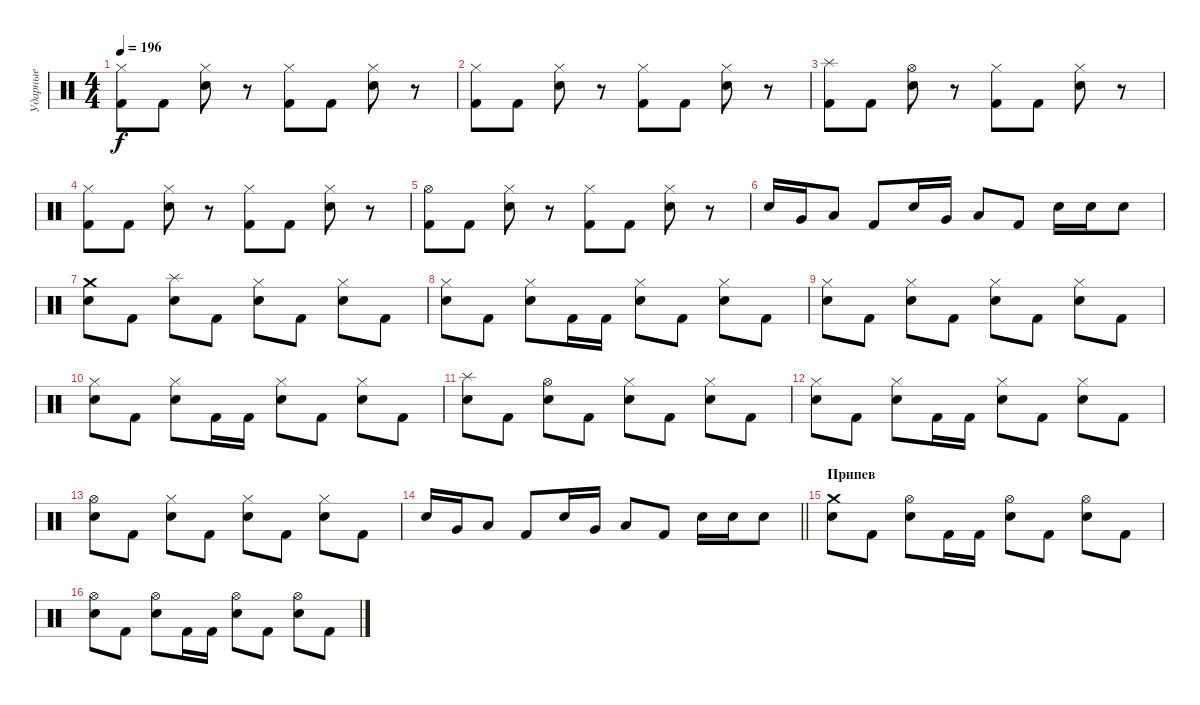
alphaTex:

\track ("Ударные" "Ударные") {instrument percussion}
\staff {score}
\articulation defaults
\ts (4 4)
\tempo 196
\clef neutral
\ks c
("Hi-Hat (closed)" "Kick (hit) 2").8{dy f} "Kick (hit) 2".8 ("Hi-Hat (closed)" "Snare (hit) 2").8 r.8 ("Hi-Hat (closed)" "Kick (hit) 2").8 "Kick (hit) 2".8 ("Hi-Hat (closed)" "Snare (hit) 2").8 r.8 |
("Hi-Hat (closed)" "Kick (hit) 2").8 "Kick (hit) 2".8 ("Hi-Hat (closed)" "Snare (hit) 2").8 r.8 ("Hi-Hat (closed)" "Kick (hit) 2").8 "Kick (hit) 2".8 ("Hi-Hat (closed)" "Snare (hit) 2").8 r.8 |
("Splash (hit)" "Kick (hit) 2").8 "Kick (hit) 2".8 ("Hi-Hat (open)" "Snare (hit) 2").8 r.8 ("Hi-Hat (closed)" "Kick (hit) 2").8 "Kick (hit) 2".8 ("Hi-Hat (closed)" "Snare (hit) 2").8 r.8 |
("Hi-Hat (closed)" "Kick (hit) 2").8 "Kick (hit) 2".8 ("Hi-Hat (closed)" "Snare (hit) 2").8 r.8 ("Hi-Hat (closed)" "Kick (hit) 2").8 "Kick (hit) 2".8 ("Hi-Hat (closed)" "Snare (hit) 2").8 r.8 |
("Hi-Hat (open)" "Kick (hit) 2").8 "Kick (hit) 2".8 ("Hi-Hat (closed)" "Snare (hit) 2").8 r.8 ("Hi-Hat (closed)" "Kick (hit) 2").8 "Kick (hit) 2".8 ("Hi-Hat (closed)" "Snare (hit) 2").8 r.8 |
"Snare (hit) 2".16 "Very Low Tom (hit)".16 "Low Tom (hit)".8 "Kick (hit) 2".8 "Snare (hit) 2".16 "Very Low Tom (hit)".16 "Low Tom (hit)".8 "Kick (hit) 2".8 "Snare (hit) 2".16 "Snare (hit) 2".16 "Snare (hit) 2".8 |
("Crash medium (hit)" "Snare (hit) 2").8 "Kick (hit) 2".8 ("Splash (hit)" "Snare (hit) 2").8 "Kick (hit) 2".8 ("Hi-Hat (closed)" "Snare (hit) 2").8 "Kick (hit) 2".8 ("Hi-Hat (closed)" "Snare (hit) 2").8 "Kick (hit) 2".8 |
("Hi-Hat (closed)" "Snare (hit) 2").8 "Kick (hit) 2".8 ("Hi-Hat (closed)" "Snare (hit) 2").8 "Kick (hit) 2".16 "Kick (hit) 2".16 ("Hi-Hat (closed)" "Snare (hit) 2").8 "Kick (hit) 2".8 ("Hi-Hat (closed)" "Snare (hit) 2").8 "Kick (hit) 2".8 |
("Hi-Hat (closed)" "Snare (hit) 2").8 "Kick (hit) 2".8 ("Hi-Hat (closed)" "Snare (hit) 2").8 "Kick (hit) 2".8 ("Hi-Hat (closed)" "Snare (hit) 2").8 "Kick (hit) 2".8 ("Hi-Hat (closed)" "Snare (hit) 2").8 "Kick (hit) 2".8 |
("Hi-Hat (closed)" "Snare (hit) 2").8 "Kick (hit) 2".8 ("Hi-Hat (closed)" "Snare (hit) 2").8 "Kick (hit) 2".16 "Kick (hit) 2".16 ("Hi-Hat (closed)" "Snare (hit) 2").8 "Kick (hit) 2".8 ("Hi-Hat (closed)" "Snare (hit) 2").8 "Kick (hit) 2".8 |
("Splash (hit)" "Snare (hit) 2").8 "Kick (hit) 2".8 ("Hi-Hat (open)" "Snare (hit) 2").8 "Kick (hit) 2".8 ("Hi-Hat (closed)" "Snare (hit) 2").8 "Kick (hit) 2".8 ("Hi-Hat (closed)" "Snare (hit) 2").8 "Kick (hit) 2".8 |
("Hi-Hat (closed)" "Snare (hit) 2").8 "Kick (hit) 2".8 ("Hi-Hat (closed)" "Snare (hit) 2").8 "Kick (hit) 2".16 "Kick (hit) 2".16 ("Hi-Hat (closed)" "Snare (hit) 2").8 "Kick (hit) 2".8 ("Hi-Hat (closed)" "Snare (hit) 2").8 "Kick (hit) 2".8 |
("Hi-Hat (open)" "Snare (hit) 2").8 "Kick (hit) 2".8 ("Hi-Hat (closed)" "Snare (hit) 2").8 "Kick (hit) 2".8 ("Hi-Hat (closed)" "Snare (hit) 2").8 "Kick (hit) 2".8 ("Hi-Hat (closed)" "Snare (hit) 2").8 "Kick (hit) 2".8 |
\barLineRight lightlight "Snare (hit) 2".16 "Very Low Tom (hit)".16 "Low Tom (hit)".8 "Kick (hit) 2".8 "Snare (hit) 2".16 "Very Low Tom (hit)".16 "Low Tom (hit)".8 "Kick (hit) 2".8 "Snare (hit) 2".16 "Snare (hit) 2".16 "Snare (hit) 2".8
|
\section ("" "Припев")
("Crash medium (hit)" "Snare (hit) 2").8 "Kick (hit) 2".8 ("Hi-Hat (open)" "Snare (hit) 2").8 "Kick (hit) 2".16 "Kick (hit) 2".16 ("Hi-Hat (open)" "Snare (hit) 2").8 "Kick (hit) 2".8 ("Hi-Hat (open)" "Snare (hit) 2").8 "Kick (hit) 2".8 |
("Hi-Hat (open)" "Snare (hit) 2").8 "Kick (hit) 2".8 ("Hi-Hat (open)" "Snare (hit) 2").8 "Kick (hit) 2".16 "Kick (hit) 2".16 ("Hi-Hat (open)" "Snare (hit) 2").8 "Kick (hit) 2".8 ("Hi-Hat (open)" "Snare (hit) 2").8 "Kick (hit) 2".8
